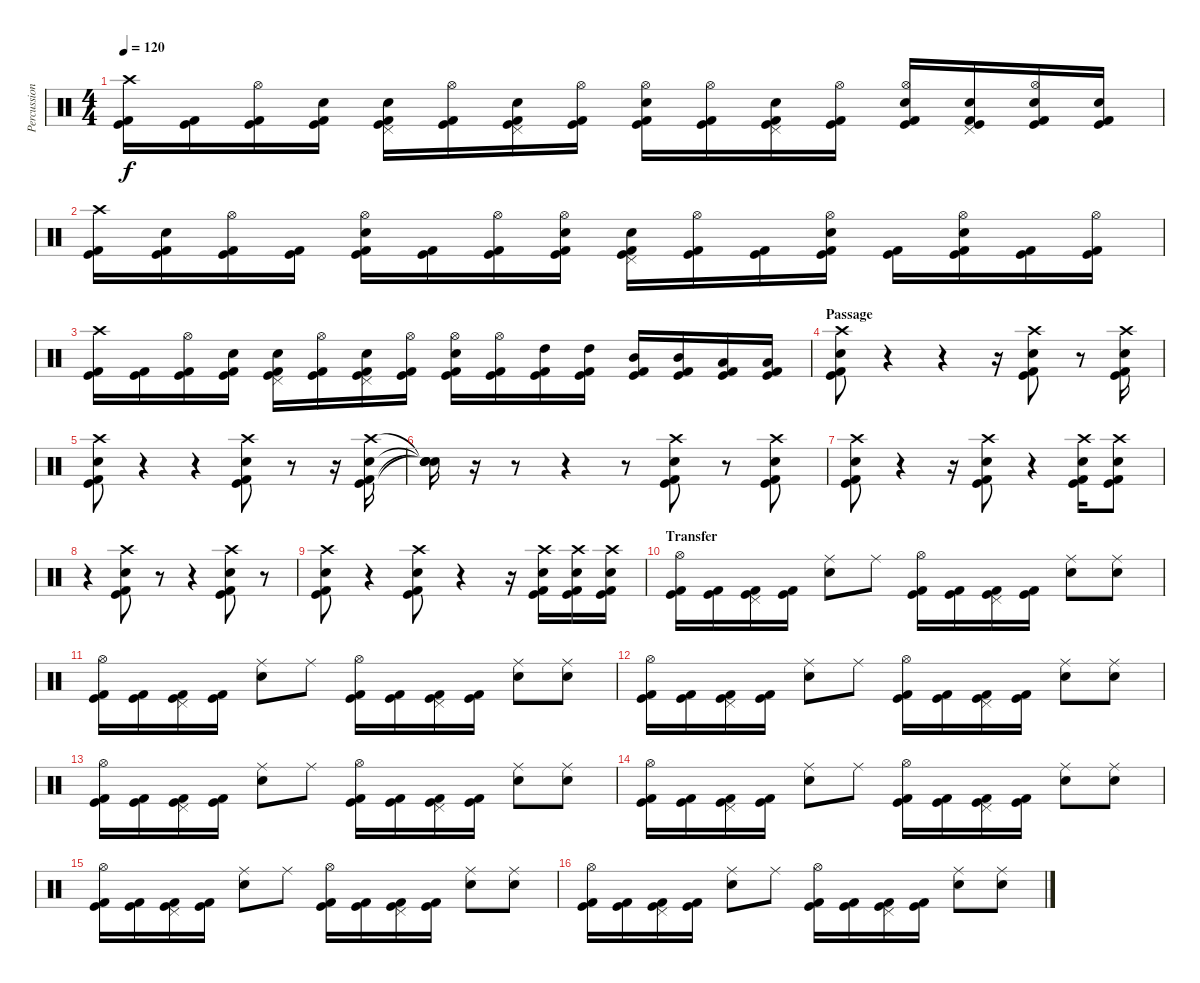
\track ("Percussion" "Percussion") {instrument percussion}
\staff {score}
\articulation defaults
\ts (4 4)
\tempo 120
\clef neutral
\ks c
("Crash high (hit)" "Kick (hit) 2" "Kick (hit)").16{dy f} ("Kick (hit) 2" "Kick (hit)").16 ("Hi-Hat (open)" "Kick (hit) 2" "Kick (hit)").16 ("Snare (hit) 2" "Kick (hit) 2" "Kick (hit)").16 ("Pedal Hi-Hat (hit)" "Snare (hit) 2" "Kick (hit) 2" "Kick (hit)").16 ("Hi-Hat (open)" "Kick (hit) 2" "Kick (hit)").16 ("Pedal Hi-Hat (hit)" "Snare (hit) 2" "Kick (hit) 2" "Kick (hit)").16 ("Hi-Hat (open)" "Kick (hit) 2" "Kick (hit)").16 ("Hi-Hat (open)" "Snare (hit) 2" "Kick (hit) 2" "Kick (hit)").16 ("Hi-Hat (open)" "Kick (hit) 2" "Kick (hit)").16 ("Pedal Hi-Hat (hit)" "Snare (hit) 2" "Kick (hit) 2" "Kick (hit)").16 ("Hi-Hat (open)" "Kick (hit) 2" "Kick (hit)").16 ("Hi-Hat (open)" "Snare (hit) 2" "Kick (hit) 2" "Kick (hit)").16 ("Pedal Hi-Hat (hit)" "Snare (hit) 2" "Kick (hit) 2" "Kick (hit)").16 ("Hi-Hat (open)" "Snare (hit) 2" "Kick (hit) 2" "Kick (hit)").16 ("Snare (hit) 2" "Kick (hit) 2" "Kick (hit)").16 |
("Crash high (hit)" "Kick (hit) 2" "Kick (hit)").16 ("Snare (hit) 2" "Kick (hit) 2" "Kick (hit)").16 ("Hi-Hat (open)" "Kick (hit) 2" "Kick (hit)").16 ("Kick (hit) 2" "Kick (hit)").16 ("Hi-Hat (open)" "Snare (hit) 2" "Kick (hit) 2" "Kick (hit)").16 ("Kick (hit) 2" "Kick (hit)").16 ("Hi-Hat (open)" "Kick (hit) 2" "Kick (hit)").16 ("Hi-Hat (open)" "Snare (hit) 2" "Kick (hit) 2" "Kick (hit)").16 ("Pedal Hi-Hat (hit)" "Snare (hit) 2" "Kick (hit) 2" "Kick (hit)").16 ("Hi-Hat (open)" "Kick (hit) 2" "Kick (hit)").16 ("Kick (hit) 2" "Kick (hit)").16 ("Hi-Hat (open)" "Snare (hit) 2" "Kick (hit) 2" "Kick (hit)").16 ("Kick (hit) 2" "Kick (hit)").16 ("Hi-Hat (open)" "Snare (hit) 2" "Kick (hit) 2" "Kick (hit)").16 ("Kick (hit) 2" "Kick (hit)").16 ("Hi-Hat (open)" "Kick (hit) 2" "Kick (hit)").16 |
("Crash high (hit)" "Kick (hit) 2" "Kick (hit)").16 ("Kick (hit) 2" "Kick (hit)").16 ("Hi-Hat (open)" "Kick (hit) 2" "Kick (hit)").16 ("Snare (hit) 2" "Kick (hit) 2" "Kick (hit)").16 ("Pedal Hi-Hat (hit)" "Snare (hit) 2" "Kick (hit) 2" "Kick (hit)").16 ("Hi-Hat (open)" "Kick (hit) 2" "Kick (hit)").16 ("Pedal Hi-Hat (hit)" "Snare (hit) 2" "Kick (hit) 2" "Kick (hit)").16 ("Hi-Hat (open)" "Kick (hit) 2" "Kick (hit)").16 ("Hi-Hat (open)" "Snare (hit) 2" "Kick (hit) 2" "Kick (hit)").16 ("Hi-Hat (open)" "Kick (hit) 2" "Kick (hit)").16 ("High Tom (hit)" "Kick (hit) 2" "Kick (hit)").16 ("High Tom (hit)" "Kick (hit) 2" "Kick (hit)").16 ("Mid Tom (hit)" "Kick (hit) 2" "Kick (hit)").16 ("Mid Tom (hit)" "Kick (hit) 2" "Kick (hit)").16 ("Low Tom (hit)" "Kick (hit) 2" "Kick (hit)").16 ("Low Tom (hit)" "Kick (hit) 2" "Kick (hit)").16 |
\section ("" "Passage")
("Crash high (hit)" "Snare (hit) 2" "Kick (hit) 2" "Kick (hit)").8 r.4 r.4 r.16 ("Crash high (hit)" "Snare (hit) 2" "Kick (hit) 2" "Kick (hit)").8 r.8 ("Crash high (hit)" "Snare (hit) 2" "Kick (hit) 2" "Kick (hit)").16 |
("Crash high (hit)" "Snare (hit) 2" "Kick (hit) 2" "Kick (hit)").8 r.4 r.4 ("Crash high (hit)" "Snare (hit) 2" "Kick (hit) 2" "Kick (hit)").8 r.8 r.16 ("Crash high (hit)" "Snare (hit) 2" "Kick (hit) 2" "Kick (hit)").16 |
("Snare (hit)"{t} "Snare (hit)"{t} "Snare (hit)"{t} "Snare (hit)"{t}).16 r.16 r.8 r.4 r.8 ("Crash high (hit)" "Snare (hit) 2" "Kick (hit) 2" "Kick (hit)").8 r.8 ("Crash high (hit)" "Snare (hit) 2" "Kick (hit) 2" "Kick (hit)").8 |
("Crash high (hit)" "Snare (hit) 2" "Kick (hit) 2" "Kick (hit)").8 r.4 r.16 ("Crash high (hit)" "Snare (hit) 2" "Kick (hit) 2" "Kick (hit)").8 r.4 ("Crash high (hit)" "Snare (hit) 2" "Kick (hit) 2" "Kick (hit)").16 ("Crash high (hit)" "Snare (hit) 2" "Kick (hit) 2" "Kick (hit)").8 |
r.4 ("Crash high (hit)" "Snare (hit) 2" "Kick (hit) 2" "Kick (hit)").8 r.8 r.4 ("Crash high (hit)" "Snare (hit) 2" "Kick (hit) 2" "Kick (hit)").8 r.8 |
("Crash high (hit)" "Snare (hit) 2" "Kick (hit) 2" "Kick (hit)").8 r.4 ("Crash high (hit)" "Snare (hit) 2" "Kick (hit) 2" "Kick (hit)").8 r.4 r.16 ("Crash high (hit)" "Snare (hit) 2" "Kick (hit) 2" "Kick (hit)").16 ("Crash high (hit)" "Snare (hit) 2" "Kick (hit) 2" "Kick (hit)").16 ("Crash high (hit)" "Snare (hit) 2" "Kick (hit) 2" "Kick (hit)").16 |
\section ("" "Transfer")
("Hi-Hat (open)" "Kick (hit) 2" "Kick (hit)").16 ("Kick (hit) 2" "Kick (hit)").16 ("Pedal Hi-Hat (hit)" "Kick (hit) 2" "Kick (hit)").16 ("Kick (hit) 2" "Kick (hit)").16 ("Ride (middle)" "Snare (hit) 2").8 "Ride (middle)".8 ("Hi-Hat (open)" "Kick (hit) 2" "Kick (hit)").16 ("Kick (hit) 2" "Kick (hit)").16 ("Pedal Hi-Hat (hit)" "Kick (hit) 2" "Kick (hit)").16 ("Kick (hit) 2" "Kick (hit)").16 ("Ride (middle)" "Snare (hit) 2").8 ("Ride (middle)" "Snare (hit) 2").8 |
("Hi-Hat (open)" "Kick (hit) 2" "Kick (hit)").16 ("Kick (hit) 2" "Kick (hit)").16 ("Pedal Hi-Hat (hit)" "Kick (hit) 2" "Kick (hit)").16 ("Kick (hit) 2" "Kick (hit)").16 ("Ride (middle)" "Snare (hit) 2").8 "Ride (middle)".8 ("Hi-Hat (open)" "Kick (hit) 2" "Kick (hit)").16 ("Kick (hit) 2" "Kick (hit)").16 ("Pedal Hi-Hat (hit)" "Kick (hit) 2" "Kick (hit)").16 ("Kick (hit) 2" "Kick (hit)").16 ("Ride (middle)" "Snare (hit) 2").8 ("Ride (middle)" "Snare (hit) 2").8 |
("Hi-Hat (open)" "Kick (hit) 2" "Kick (hit)").16 ("Kick (hit) 2" "Kick (hit)").16 ("Pedal Hi-Hat (hit)" "Kick (hit) 2" "Kick (hit)").16 ("Kick (hit) 2" "Kick (hit)").16 ("Ride (middle)" "Snare (hit) 2").8 "Ride (middle)".8 ("Hi-Hat (open)" "Kick (hit) 2" "Kick (hit)").16 ("Kick (hit) 2" "Kick (hit)").16 ("Pedal Hi-Hat (hit)" "Kick (hit) 2" "Kick (hit)").16 ("Kick (hit) 2" "Kick (hit)").16 ("Ride (middle)" "Snare (hit) 2").8 ("Ride (middle)" "Snare (hit) 2").8 |
("Hi-Hat (open)" "Kick (hit) 2" "Kick (hit)").16 ("Kick (hit) 2" "Kick (hit)").16 ("Pedal Hi-Hat (hit)" "Kick (hit) 2" "Kick (hit)").16 ("Kick (hit) 2" "Kick (hit)").16 ("Ride (middle)" "Snare (hit) 2").8 "Ride (middle)".8 ("Hi-Hat (open)" "Kick (hit) 2" "Kick (hit)").16 ("Kick (hit) 2" "Kick (hit)").16 ("Pedal Hi-Hat (hit)" "Kick (hit) 2" "Kick (hit)").16 ("Kick (hit) 2" "Kick (hit)").16 ("Ride (middle)" "Snare (hit) 2").8 ("Ride (middle)" "Snare (hit) 2").8 |
("Hi-Hat (open)" "Kick (hit) 2" "Kick (hit)").16 ("Kick (hit) 2" "Kick (hit)").16 ("Pedal Hi-Hat (hit)" "Kick (hit) 2" "Kick (hit)").16 ("Kick (hit) 2" "Kick (hit)").16 ("Ride (middle)" "Snare (hit) 2").8 "Ride (middle)".8 ("Hi-Hat (open)" "Kick (hit) 2" "Kick (hit)").16 ("Kick (hit) 2" "Kick (hit)").16 ("Pedal Hi-Hat (hit)" "Kick (hit) 2" "Kick (hit)").16 ("Kick (hit) 2" "Kick (hit)").16 ("Ride (middle)" "Snare (hit) 2").8 ("Ride (middle)" "Snare (hit) 2").8 |
("Hi-Hat (open)" "Kick (hit) 2" "Kick (hit)").16 ("Kick (hit) 2" "Kick (hit)").16 ("Pedal Hi-Hat (hit)" "Kick (hit) 2" "Kick (hit)").16 ("Kick (hit) 2" "Kick (hit)").16 ("Ride (middle)" "Snare (hit) 2").8 "Ride (middle)".8 ("Hi-Hat (open)" "Kick (hit) 2" "Kick (hit)").16 ("Kick (hit) 2" "Kick (hit)").16 ("Pedal Hi-Hat (hit)" "Kick (hit) 2" "Kick (hit)").16 ("Kick (hit) 2" "Kick (hit)").16 ("Ride (middle)" "Snare (hit) 2").8 ("Ride (middle)" "Snare (hit) 2").8 |
("Hi-Hat (open)" "Kick (hit) 2" "Kick (hit)").16 ("Kick (hit) 2" "Kick (hit)").16 ("Pedal Hi-Hat (hit)" "Kick (hit) 2" "Kick (hit)").16 ("Kick (hit) 2" "Kick (hit)").16 ("Ride (middle)" "Snare (hit) 2").8 "Ride (middle)".8 ("Hi-Hat (open)" "Kick (hit) 2" "Kick (hit)").16 ("Kick (hit) 2" "Kick (hit)").16 ("Pedal Hi-Hat (hit)" "Kick (hit) 2" "Kick (hit)").16 ("Kick (hit) 2" "Kick (hit)").16 ("Ride (middle)" "Snare (hit) 2").8 ("Ride (middle)" "Snare (hit) 2").8
